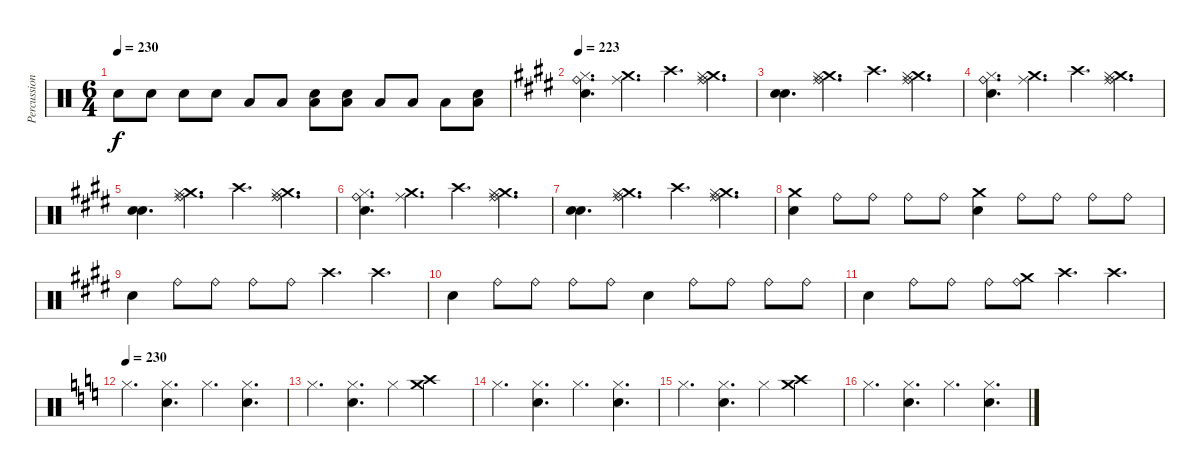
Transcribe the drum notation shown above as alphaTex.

\track ("Percussion" "Percussion") {instrument percussion}
\staff {score}
\articulation defaults
\ts (6 4)
\tempo 230
\clef neutral
\ks c "Snare (hit) 2".8{dy f} "Snare (hit) 2".8 "Snare (hit) 2".8 "Snare (hit) 2".8 "Low Tom (hit)".8 "Low Tom (hit)".8
("Low Tom (hit)" "Snare (hit) 2").8 ("Low Tom (hit)" "Snare (hit) 2").8 "Low Tom (hit)".8 "Low Tom (hit)".8 "Low Tom (hit)".8 ("Low Tom (hit)" "Snare (hit) 2").8 |
\tempo 223
\ks e
("Hi-Hat (closed)" "Snare (hit) 2" "Ride (bell)").4{d} ("Ride (middle)" "Crash medium (hit)").4{d} "Crash high (hit)".4{d} ("Ride (middle)" "Crash medium (hit)" "Hi-Hat (closed)" "Ride (bell)").4{d} |
("Snare (hit) 2" "Snare (hit) 2").4{d} ("Ride (middle)" "Crash medium (hit)" "Hi-Hat (closed)" "Ride (bell)").4{d} "Crash high (hit)".4{d} ("Ride (middle)" "Crash medium (hit)" "Hi-Hat (closed)" "Ride (bell)").4{d} |
("Hi-Hat (closed)" "Snare (hit) 2" "Ride (bell)").4{d} ("Ride (middle)" "Crash medium (hit)").4{d} "Crash high (hit)".4{d} ("Ride (middle)" "Crash medium (hit)" "Hi-Hat (closed)" "Ride (bell)").4{d} |
("Snare (hit) 2" "Snare (hit) 2").4{d} ("Ride (middle)" "Crash medium (hit)" "Hi-Hat (closed)" "Ride (bell)").4{d} "Crash high (hit)".4{d} ("Ride (middle)" "Crash medium (hit)" "Hi-Hat (closed)" "Ride (bell)").4{d} |
("Hi-Hat (closed)" "Snare (hit) 2" "Ride (bell)").4{d} ("Ride (middle)" "Crash medium (hit)").4{d} "Crash high (hit)".4{d} ("Ride (middle)" "Crash medium (hit)" "Hi-Hat (closed)" "Ride (bell)").4{d} |
("Snare (hit) 2" "Snare (hit) 2").4{d} ("Ride (middle)" "Crash medium (hit)" "Hi-Hat (closed)" "Ride (bell)").4{d} "Crash high (hit)".4{d} ("Ride (middle)" "Crash medium (hit)" "Hi-Hat (closed)" "Ride (bell)").4{d} |
("Snare (hit) 2" "Crash medium (hit)").4 "Ride (bell)".8 "Ride (bell)".8 "Ride (bell)".8 "Ride (bell)".8 ("Snare (hit) 2" "Crash medium (hit)").4 "Ride (bell)".8 "Ride (bell)".8 "Ride (bell)".8 "Ride (bell)".8 |
"Snare (hit) 2".4 "Ride (bell)".8 "Ride (bell)".8 "Ride (bell)".8 "Ride (bell)".8 "Crash high (hit)".4{d} "Crash high (hit)".4{d} |
"Snare (hit) 2".4 "Ride (bell)".8 "Ride (bell)".8 "Ride (bell)".8 "Ride (bell)".8 "Snare (hit) 2".4 "Ride (bell)".8 "Ride (bell)".8 "Ride (bell)".8 "Ride (bell)".8 |
"Snare (hit) 2".4 "Ride (bell)".8 "Ride (bell)".8 "Ride (bell)".8 ("Crash medium (hit)" "Ride (bell)").8 "Crash high (hit)".4{d} "Crash high (hit)".4{d} |
\tempo 230
\ks c "Hi-Hat (closed)".4{d}
("Hi-Hat (closed)" "Snare (hit) 2").4{d} "Hi-Hat (closed)".4{d} ("Hi-Hat (closed)" "Snare (hit) 2").4{d} |
"Hi-Hat (closed)".4{d} ("Hi-Hat (closed)" "Snare (hit) 2").4{d} "Hi-Hat (closed)".4 ("Crash high (hit)" "Crash medium (hit)").2 |
"Hi-Hat (closed)".4{d} ("Hi-Hat (closed)" "Snare (hit) 2").4{d} "Hi-Hat (closed)".4{d} ("Hi-Hat (closed)" "Snare (hit) 2").4{d} |
"Hi-Hat (closed)".4{d} ("Hi-Hat (closed)" "Snare (hit) 2").4{d} "Hi-Hat (closed)".4 ("Crash high (hit)" "Crash medium (hit)").2 |
"Hi-Hat (closed)".4{d} ("Hi-Hat (closed)" "Snare (hit) 2").4{d} "Hi-Hat (closed)".4{d} ("Hi-Hat (closed)" "Snare (hit) 2").4{d}
